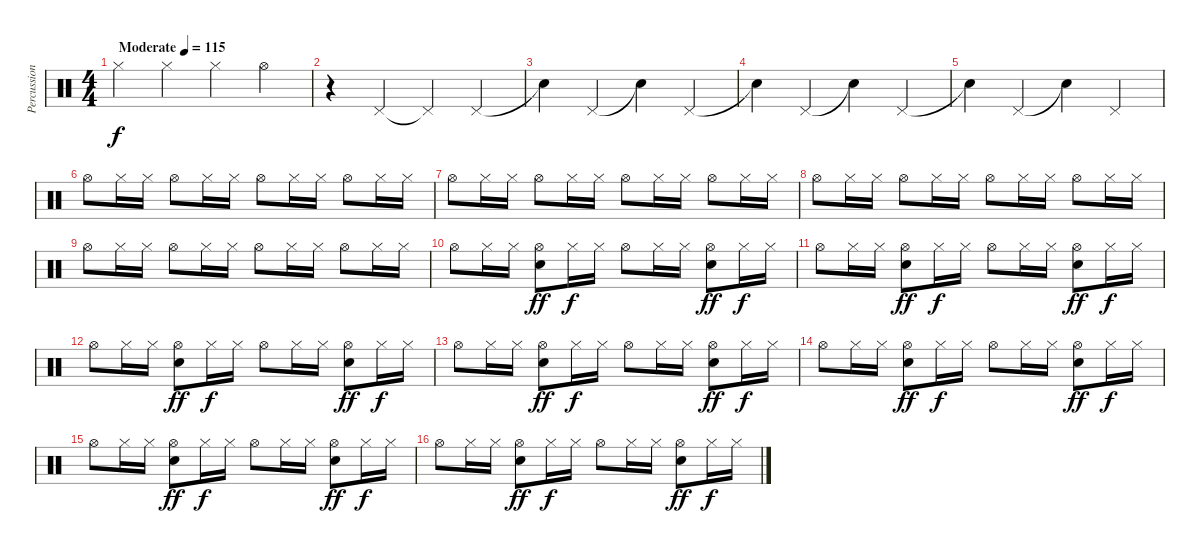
\track ("Percussion" "Percussion") {instrument percussion}
\staff {score}
\articulation defaults
\ts (4 4)
\tempo (115 "Moderate")
\clef neutral
\ks c "Hi-Hat (closed)".4{dy f} "Hi-Hat (closed)".4 "Hi-Hat (closed)".4 "Hi-Hat (open)".4
|
r.4 "Pedal Hi-Hat (hit)".4 "Pedal Hi-Hat (hit)"{t}.4 "Pedal Hi-Hat (hit)".4 |
"Snare (hit)"{t}.4 "Pedal Hi-Hat (hit)".4 "Snare (hit)"{t}.4 "Pedal Hi-Hat (hit)".4 |
"Snare (hit)"{t}.4 "Pedal Hi-Hat (hit)".4 "Snare (hit)"{t}.4 "Pedal Hi-Hat (hit)".4 |
"Snare (hit)"{t}.4 "Pedal Hi-Hat (hit)".4 "Snare (hit)"{t}.4 "Pedal Hi-Hat (hit)".4 |
"Hi-Hat (open)".8 "Hi-Hat (closed)".16 "Hi-Hat (closed)".16 "Hi-Hat (open)".8 "Hi-Hat (closed)".16 "Hi-Hat (closed)".16 "Hi-Hat (open)".8 "Hi-Hat (closed)".16 "Hi-Hat (closed)".16 "Hi-Hat (open)".8 "Hi-Hat (closed)".16 "Hi-Hat (closed)".16 |
"Hi-Hat (open)".8 "Hi-Hat (closed)".16 "Hi-Hat (closed)".16 "Hi-Hat (open)".8 "Hi-Hat (closed)".16 "Hi-Hat (closed)".16 "Hi-Hat (open)".8 "Hi-Hat (closed)".16 "Hi-Hat (closed)".16 "Hi-Hat (open)".8 "Hi-Hat (closed)".16 "Hi-Hat (closed)".16 |
"Hi-Hat (open)".8 "Hi-Hat (closed)".16 "Hi-Hat (closed)".16 "Hi-Hat (open)".8 "Hi-Hat (closed)".16 "Hi-Hat (closed)".16 "Hi-Hat (open)".8 "Hi-Hat (closed)".16 "Hi-Hat (closed)".16 "Hi-Hat (open)".8 "Hi-Hat (closed)".16 "Hi-Hat (closed)".16 |
"Hi-Hat (open)".8 "Hi-Hat (closed)".16 "Hi-Hat (closed)".16 "Hi-Hat (open)".8 "Hi-Hat (closed)".16 "Hi-Hat (closed)".16 "Hi-Hat (open)".8 "Hi-Hat (closed)".16 "Hi-Hat (closed)".16 "Hi-Hat (open)".8 "Hi-Hat (closed)".16 "Hi-Hat (closed)".16 |
"Hi-Hat (open)".8 "Hi-Hat (closed)".16 "Hi-Hat (closed)".16 ("Hi-Hat (open)" "Electric Snare (hit)").8{dy ff} "Hi-Hat (closed)".16{dy f} "Hi-Hat (closed)".16 "Hi-Hat (open)".8 "Hi-Hat (closed)".16 "Hi-Hat (closed)".16 ("Hi-Hat (open)" "Electric Snare (hit)").8{dy ff} "Hi-Hat (closed)".16{dy f} "Hi-Hat (closed)".16 |
"Hi-Hat (open)".8 "Hi-Hat (closed)".16 "Hi-Hat (closed)".16 ("Hi-Hat (open)" "Electric Snare (hit)").8{dy ff} "Hi-Hat (closed)".16{dy f} "Hi-Hat (closed)".16 "Hi-Hat (open)".8 "Hi-Hat (closed)".16 "Hi-Hat (closed)".16 ("Hi-Hat (open)" "Electric Snare (hit)").8{dy ff} "Hi-Hat (closed)".16{dy f} "Hi-Hat (closed)".16 |
"Hi-Hat (open)".8 "Hi-Hat (closed)".16 "Hi-Hat (closed)".16 ("Hi-Hat (open)" "Electric Snare (hit)").8{dy ff} "Hi-Hat (closed)".16{dy f} "Hi-Hat (closed)".16 "Hi-Hat (open)".8 "Hi-Hat (closed)".16 "Hi-Hat (closed)".16 ("Hi-Hat (open)" "Electric Snare (hit)").8{dy ff} "Hi-Hat (closed)".16{dy f} "Hi-Hat (closed)".16 |
"Hi-Hat (open)".8 "Hi-Hat (closed)".16 "Hi-Hat (closed)".16 ("Hi-Hat (open)" "Electric Snare (hit)").8{dy ff} "Hi-Hat (closed)".16{dy f} "Hi-Hat (closed)".16 "Hi-Hat (open)".8 "Hi-Hat (closed)".16 "Hi-Hat (closed)".16 ("Hi-Hat (open)" "Electric Snare (hit)").8{dy ff} "Hi-Hat (closed)".16{dy f} "Hi-Hat (closed)".16 |
"Hi-Hat (open)".8 "Hi-Hat (closed)".16 "Hi-Hat (closed)".16 ("Hi-Hat (open)" "Electric Snare (hit)").8{dy ff} "Hi-Hat (closed)".16{dy f} "Hi-Hat (closed)".16 "Hi-Hat (open)".8 "Hi-Hat (closed)".16 "Hi-Hat (closed)".16 ("Hi-Hat (open)" "Electric Snare (hit)").8{dy ff} "Hi-Hat (closed)".16{dy f} "Hi-Hat (closed)".16 |
"Hi-Hat (open)".8 "Hi-Hat (closed)".16 "Hi-Hat (closed)".16 ("Hi-Hat (open)" "Electric Snare (hit)").8{dy ff} "Hi-Hat (closed)".16{dy f} "Hi-Hat (closed)".16 "Hi-Hat (open)".8 "Hi-Hat (closed)".16 "Hi-Hat (closed)".16 ("Hi-Hat (open)" "Electric Snare (hit)").8{dy ff} "Hi-Hat (closed)".16{dy f} "Hi-Hat (closed)".16 |
"Hi-Hat (open)".8 "Hi-Hat (closed)".16 "Hi-Hat (closed)".16 ("Hi-Hat (open)" "Electric Snare (hit)").8{dy ff} "Hi-Hat (closed)".16{dy f} "Hi-Hat (closed)".16 "Hi-Hat (open)".8 "Hi-Hat (closed)".16 "Hi-Hat (closed)".16 ("Hi-Hat (open)" "Electric Snare (hit)").8{dy ff} "Hi-Hat (closed)".16{dy f} "Hi-Hat (closed)".16
